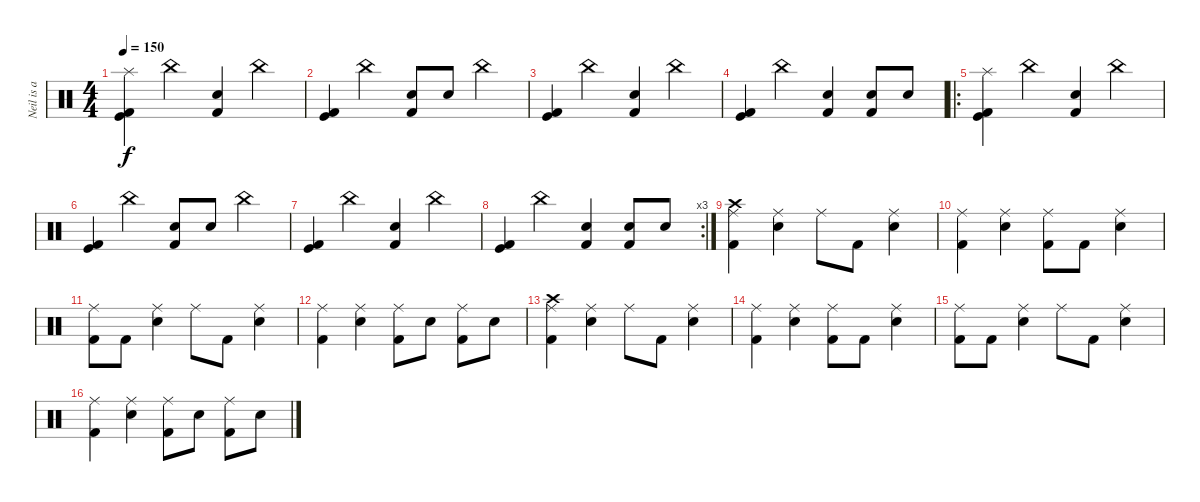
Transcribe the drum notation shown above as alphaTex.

\track ("Neil is a Drum God!!!" "Neil is a ") {instrument percussion}
\staff {score}
\articulation defaults
\ts (4 4)
\tempo 150
\clef neutral
\ks c
("Splash (hit)" "Kick (hit)" "Kick (hit) 2").4{dy f} "China (hit)".4 ("Snare (hit) 2" "Kick (hit) 2").4 "China (hit)".4 |
("Kick (hit)" "Kick (hit) 2").4 "China (hit)".4 ("Snare (hit) 2" "Kick (hit) 2").8 "Snare (hit) 2".8 "China (hit)".4 |
("Kick (hit)" "Kick (hit) 2").4 "China (hit)".4 ("Snare (hit) 2" "Kick (hit) 2").4 "China (hit)".4 |
("Kick (hit)" "Kick (hit) 2").4 "China (hit)".4 ("Snare (hit) 2" "Kick (hit) 2").4 ("Snare (hit) 2" "Kick (hit) 2").8 "Snare (hit) 2".8 |
\ro
("Splash (hit)" "Kick (hit)" "Kick (hit) 2").4 "China (hit)".4 ("Snare (hit) 2" "Kick (hit) 2").4 "China (hit)".4 |
("Kick (hit)" "Kick (hit) 2").4 "China (hit)".4 ("Snare (hit) 2" "Kick (hit) 2").8 "Snare (hit) 2".8 "China (hit)".4 |
("Kick (hit)" "Kick (hit) 2").4 "China (hit)".4 ("Snare (hit) 2" "Kick (hit) 2").4 "China (hit)".4 |
\rc 3
("Kick (hit)" "Kick (hit) 2").4 "China (hit)".4 ("Snare (hit) 2" "Kick (hit) 2").4 ("Snare (hit) 2" "Kick (hit) 2").8 "Snare (hit) 2".8 |
("Crash high (hit)" "Ride (middle)" "Kick (hit) 2").4 ("Ride (middle)" "Snare (hit) 2").4 "Ride (middle)".8 "Kick (hit) 2".8 ("Ride (middle)" "Snare (hit) 2").4 |
("Ride (middle)" "Kick (hit) 2").4 ("Ride (middle)" "Snare (hit) 2").4 ("Ride (middle)" "Kick (hit) 2").8 "Kick (hit) 2".8 ("Ride (middle)" "Snare (hit) 2").4 |
("Ride (middle)" "Kick (hit) 2").8 "Kick (hit) 2".8 ("Ride (middle)" "Snare (hit) 2").4 "Ride (middle)".8 "Kick (hit) 2".8 ("Ride (middle)" "Snare (hit) 2").4 |
("Ride (middle)" "Kick (hit) 2").4 ("Ride (middle)" "Snare (hit) 2").4 ("Ride (middle)" "Kick (hit) 2").8 "Snare (hit) 2".8 ("Ride (middle)" "Kick (hit) 2").8 "Snare (hit) 2".8 |
("Crash high (hit)" "Ride (middle)" "Kick (hit) 2").4 ("Ride (middle)" "Snare (hit) 2").4 "Ride (middle)".8 "Kick (hit) 2".8 ("Ride (middle)" "Snare (hit) 2").4 |
("Ride (middle)" "Kick (hit) 2").4 ("Ride (middle)" "Snare (hit) 2").4 ("Ride (middle)" "Kick (hit) 2").8 "Kick (hit) 2".8 ("Ride (middle)" "Snare (hit) 2").4 |
("Ride (middle)" "Kick (hit) 2").8 "Kick (hit) 2".8 ("Ride (middle)" "Snare (hit) 2").4 "Ride (middle)".8 "Kick (hit) 2".8 ("Ride (middle)" "Snare (hit) 2").4 |
("Ride (middle)" "Kick (hit) 2").4 ("Ride (middle)" "Snare (hit) 2").4 ("Ride (middle)" "Kick (hit) 2").8 "Snare (hit) 2".8 ("Ride (middle)" "Kick (hit) 2").8 "Snare (hit) 2".8
